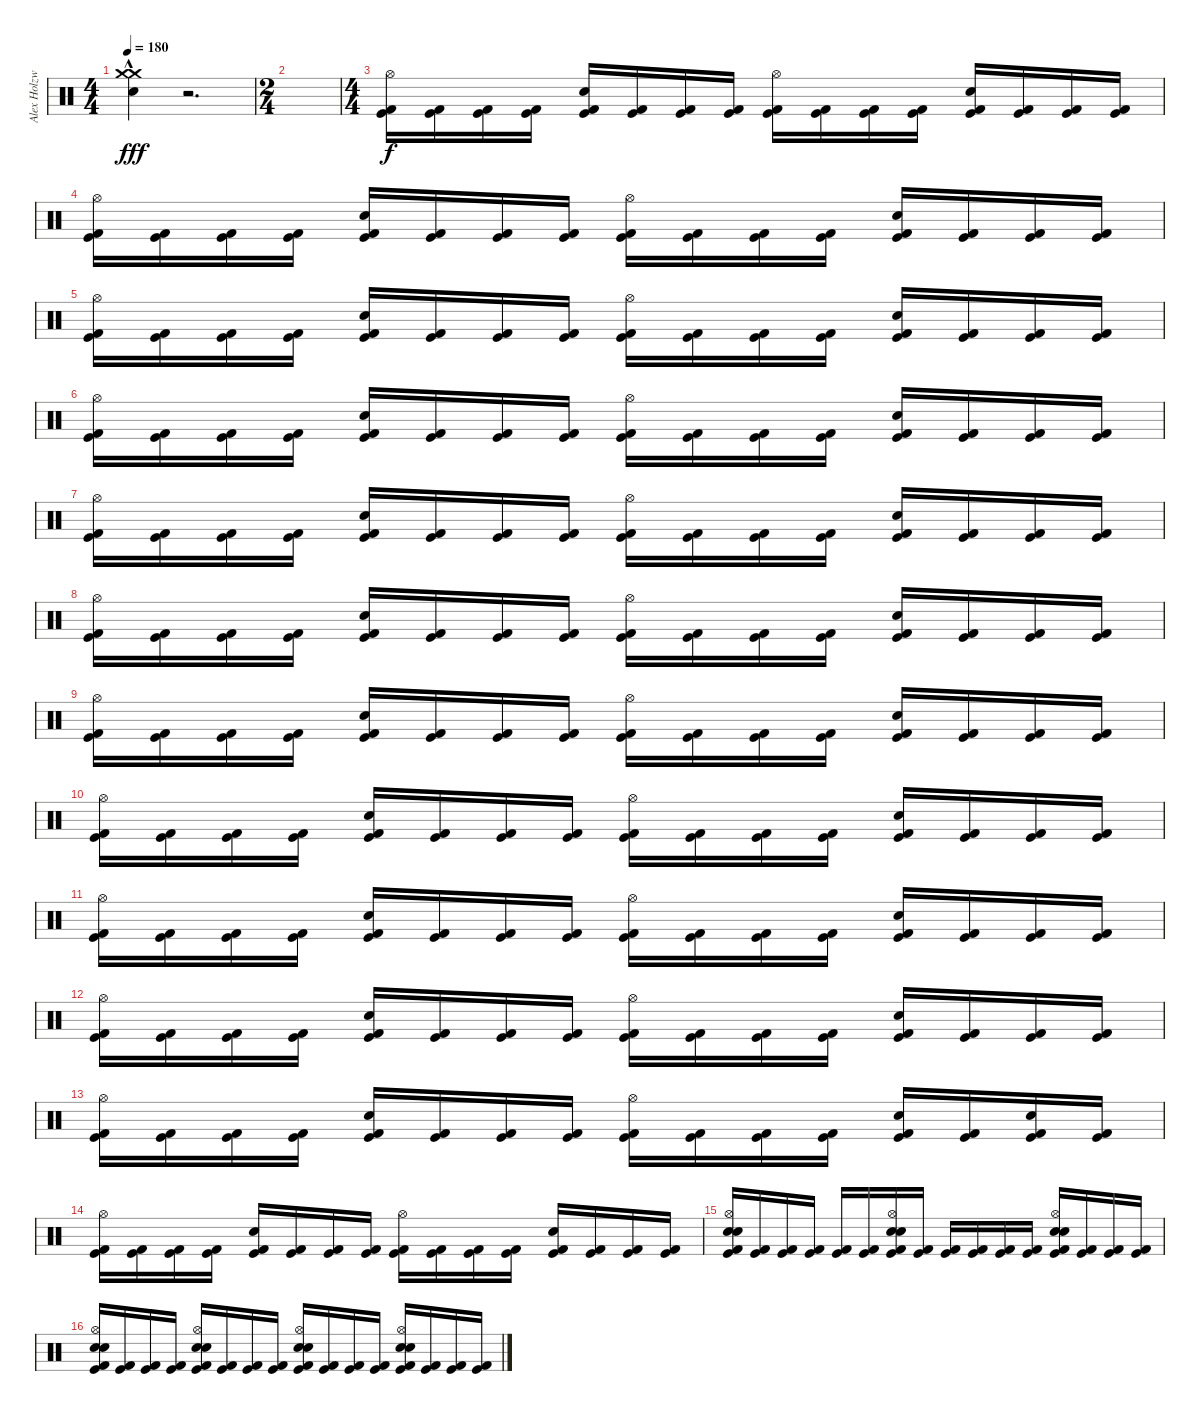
\track ("Alex Holzwarth" "Alex Holzw") {instrument percussion}
\staff {score}
\articulation defaults
\ts (4 4)
\tempo 180
\clef neutral
\ks c
("Crash medium (hit)"{hac} "Snare (hit) 2" "Crash medium (hit)"{hac}).4{dy fff volume 16} r.2{d volume 0} |
\ts (2 4)
|
\ts (4 4)
("Kick (hit) 2" "Kick (hit)" "Hi-Hat (open)").16{dy f} ("Kick (hit) 2" "Kick (hit)").16 ("Kick (hit) 2" "Kick (hit)").16 ("Kick (hit) 2" "Kick (hit)").16 ("Kick (hit) 2" "Kick (hit)" "Snare (hit) 2").16 ("Kick (hit) 2" "Kick (hit)").16 ("Kick (hit) 2" "Kick (hit)").16 ("Kick (hit) 2" "Kick (hit)").16 ("Kick (hit) 2" "Kick (hit)" "Hi-Hat (open)").16 ("Kick (hit) 2" "Kick (hit)").16 ("Kick (hit) 2" "Kick (hit)").16 ("Kick (hit) 2" "Kick (hit)").16 ("Kick (hit) 2" "Kick (hit)" "Snare (hit) 2").16 ("Kick (hit) 2" "Kick (hit)").16 ("Kick (hit) 2" "Kick (hit)").16 ("Kick (hit) 2" "Kick (hit)").16 |
("Kick (hit) 2" "Kick (hit)" "Hi-Hat (open)").16 ("Kick (hit) 2" "Kick (hit)").16 ("Kick (hit) 2" "Kick (hit)").16 ("Kick (hit) 2" "Kick (hit)").16 ("Kick (hit) 2" "Kick (hit)" "Snare (hit) 2").16 ("Kick (hit) 2" "Kick (hit)").16 ("Kick (hit) 2" "Kick (hit)").16 ("Kick (hit) 2" "Kick (hit)").16 ("Kick (hit) 2" "Kick (hit)" "Hi-Hat (open)").16 ("Kick (hit) 2" "Kick (hit)").16 ("Kick (hit) 2" "Kick (hit)").16 ("Kick (hit) 2" "Kick (hit)").16 ("Kick (hit) 2" "Kick (hit)" "Snare (hit) 2").16 ("Kick (hit) 2" "Kick (hit)").16 ("Kick (hit) 2" "Kick (hit)").16 ("Kick (hit) 2" "Kick (hit)").16 |
("Kick (hit) 2" "Kick (hit)" "Hi-Hat (open)").16 ("Kick (hit) 2" "Kick (hit)").16 ("Kick (hit) 2" "Kick (hit)").16 ("Kick (hit) 2" "Kick (hit)").16 ("Kick (hit) 2" "Kick (hit)" "Snare (hit) 2").16 ("Kick (hit) 2" "Kick (hit)").16 ("Kick (hit) 2" "Kick (hit)").16 ("Kick (hit) 2" "Kick (hit)").16 ("Kick (hit) 2" "Kick (hit)" "Hi-Hat (open)").16 ("Kick (hit) 2" "Kick (hit)").16 ("Kick (hit) 2" "Kick (hit)").16 ("Kick (hit) 2" "Kick (hit)").16 ("Kick (hit) 2" "Kick (hit)" "Snare (hit) 2").16 ("Kick (hit) 2" "Kick (hit)").16 ("Kick (hit) 2" "Kick (hit)").16 ("Kick (hit) 2" "Kick (hit)").16 |
("Kick (hit) 2" "Kick (hit)" "Hi-Hat (open)").16 ("Kick (hit) 2" "Kick (hit)").16 ("Kick (hit) 2" "Kick (hit)").16 ("Kick (hit) 2" "Kick (hit)").16 ("Kick (hit) 2" "Kick (hit)" "Snare (hit) 2").16 ("Kick (hit) 2" "Kick (hit)").16 ("Kick (hit) 2" "Kick (hit)").16 ("Kick (hit) 2" "Kick (hit)").16 ("Kick (hit) 2" "Kick (hit)" "Hi-Hat (open)").16 ("Kick (hit) 2" "Kick (hit)").16 ("Kick (hit) 2" "Kick (hit)").16 ("Kick (hit) 2" "Kick (hit)").16 ("Kick (hit) 2" "Kick (hit)" "Snare (hit) 2").16 ("Kick (hit) 2" "Kick (hit)").16 ("Kick (hit) 2" "Kick (hit)").16 ("Kick (hit) 2" "Kick (hit)").16 |
("Kick (hit) 2" "Kick (hit)" "Hi-Hat (open)").16 ("Kick (hit) 2" "Kick (hit)").16 ("Kick (hit) 2" "Kick (hit)").16 ("Kick (hit) 2" "Kick (hit)").16 ("Kick (hit) 2" "Kick (hit)" "Snare (hit) 2").16 ("Kick (hit) 2" "Kick (hit)").16 ("Kick (hit) 2" "Kick (hit)").16 ("Kick (hit) 2" "Kick (hit)").16 ("Kick (hit) 2" "Kick (hit)" "Hi-Hat (open)").16 ("Kick (hit) 2" "Kick (hit)").16 ("Kick (hit) 2" "Kick (hit)").16 ("Kick (hit) 2" "Kick (hit)").16 ("Kick (hit) 2" "Kick (hit)" "Snare (hit) 2").16 ("Kick (hit) 2" "Kick (hit)").16 ("Kick (hit) 2" "Kick (hit)").16 ("Kick (hit) 2" "Kick (hit)").16 |
("Kick (hit) 2" "Kick (hit)" "Hi-Hat (open)").16 ("Kick (hit) 2" "Kick (hit)").16 ("Kick (hit) 2" "Kick (hit)").16 ("Kick (hit) 2" "Kick (hit)").16 ("Kick (hit) 2" "Kick (hit)" "Snare (hit) 2").16 ("Kick (hit) 2" "Kick (hit)").16 ("Kick (hit) 2" "Kick (hit)").16 ("Kick (hit) 2" "Kick (hit)").16 ("Kick (hit) 2" "Kick (hit)" "Hi-Hat (open)").16 ("Kick (hit) 2" "Kick (hit)").16 ("Kick (hit) 2" "Kick (hit)").16 ("Kick (hit) 2" "Kick (hit)").16 ("Kick (hit) 2" "Kick (hit)" "Snare (hit) 2").16 ("Kick (hit) 2" "Kick (hit)").16 ("Kick (hit) 2" "Kick (hit)").16 ("Kick (hit) 2" "Kick (hit)").16 |
("Kick (hit) 2" "Kick (hit)" "Hi-Hat (open)").16 ("Kick (hit) 2" "Kick (hit)").16 ("Kick (hit) 2" "Kick (hit)").16 ("Kick (hit) 2" "Kick (hit)").16 ("Kick (hit) 2" "Kick (hit)" "Snare (hit) 2").16 ("Kick (hit) 2" "Kick (hit)").16 ("Kick (hit) 2" "Kick (hit)").16 ("Kick (hit) 2" "Kick (hit)").16 ("Kick (hit) 2" "Kick (hit)" "Hi-Hat (open)").16 ("Kick (hit) 2" "Kick (hit)").16 ("Kick (hit) 2" "Kick (hit)").16 ("Kick (hit) 2" "Kick (hit)").16 ("Kick (hit) 2" "Kick (hit)" "Snare (hit) 2").16 ("Kick (hit) 2" "Kick (hit)").16 ("Kick (hit) 2" "Kick (hit)").16 ("Kick (hit) 2" "Kick (hit)").16 |
("Kick (hit) 2" "Kick (hit)" "Hi-Hat (open)").16 ("Kick (hit) 2" "Kick (hit)").16 ("Kick (hit) 2" "Kick (hit)").16 ("Kick (hit) 2" "Kick (hit)").16 ("Kick (hit) 2" "Kick (hit)" "Snare (hit) 2").16 ("Kick (hit) 2" "Kick (hit)").16 ("Kick (hit) 2" "Kick (hit)").16 ("Kick (hit) 2" "Kick (hit)").16 ("Kick (hit) 2" "Kick (hit)" "Hi-Hat (open)").16 ("Kick (hit) 2" "Kick (hit)").16 ("Kick (hit) 2" "Kick (hit)").16 ("Kick (hit) 2" "Kick (hit)").16 ("Kick (hit) 2" "Kick (hit)" "Snare (hit) 2").16 ("Kick (hit) 2" "Kick (hit)").16 ("Kick (hit) 2" "Kick (hit)").16 ("Kick (hit) 2" "Kick (hit)").16 |
("Kick (hit) 2" "Kick (hit)" "Hi-Hat (open)").16 ("Kick (hit) 2" "Kick (hit)").16 ("Kick (hit) 2" "Kick (hit)").16 ("Kick (hit) 2" "Kick (hit)").16 ("Kick (hit) 2" "Kick (hit)" "Snare (hit) 2").16 ("Kick (hit) 2" "Kick (hit)").16 ("Kick (hit) 2" "Kick (hit)").16 ("Kick (hit) 2" "Kick (hit)").16 ("Kick (hit) 2" "Kick (hit)" "Hi-Hat (open)").16 ("Kick (hit) 2" "Kick (hit)").16 ("Kick (hit) 2" "Kick (hit)").16 ("Kick (hit) 2" "Kick (hit)").16 ("Kick (hit) 2" "Kick (hit)" "Snare (hit) 2").16 ("Kick (hit) 2" "Kick (hit)").16 ("Kick (hit) 2" "Kick (hit)").16 ("Kick (hit) 2" "Kick (hit)").16 |
("Kick (hit) 2" "Kick (hit)" "Hi-Hat (open)").16 ("Kick (hit) 2" "Kick (hit)").16 ("Kick (hit) 2" "Kick (hit)").16 ("Kick (hit) 2" "Kick (hit)").16 ("Kick (hit) 2" "Kick (hit)" "Snare (hit) 2").16 ("Kick (hit) 2" "Kick (hit)").16 ("Kick (hit) 2" "Kick (hit)").16 ("Kick (hit) 2" "Kick (hit)").16 ("Kick (hit) 2" "Kick (hit)" "Hi-Hat (open)").16 ("Kick (hit) 2" "Kick (hit)").16 ("Kick (hit) 2" "Kick (hit)").16 ("Kick (hit) 2" "Kick (hit)").16 ("Kick (hit) 2" "Kick (hit)" "Snare (hit) 2").16 ("Kick (hit) 2" "Kick (hit)").16 ("Kick (hit) 2" "Kick (hit)").16 ("Kick (hit) 2" "Kick (hit)").16 |
("Kick (hit) 2" "Kick (hit)" "Hi-Hat (open)").16 ("Kick (hit) 2" "Kick (hit)").16 ("Kick (hit) 2" "Kick (hit)").16 ("Kick (hit) 2" "Kick (hit)").16 ("Kick (hit) 2" "Kick (hit)" "Snare (hit) 2").16 ("Kick (hit) 2" "Kick (hit)").16 ("Kick (hit) 2" "Kick (hit)").16 ("Kick (hit) 2" "Kick (hit)").16 ("Kick (hit) 2" "Kick (hit)" "Hi-Hat (open)").16 ("Kick (hit) 2" "Kick (hit)").16 ("Kick (hit) 2" "Kick (hit)").16 ("Kick (hit) 2" "Kick (hit)").16 ("Kick (hit) 2" "Kick (hit)" "Snare (hit) 2").16 ("Kick (hit) 2" "Kick (hit)").16 ("Kick (hit) 2" "Kick (hit)" "Snare (hit) 2").16 ("Kick (hit) 2" "Kick (hit)").16 |
("Kick (hit) 2" "Kick (hit)" "Hi-Hat (open)").16 ("Kick (hit) 2" "Kick (hit)").16 ("Kick (hit) 2" "Kick (hit)").16 ("Kick (hit) 2" "Kick (hit)").16 ("Kick (hit) 2" "Kick (hit)" "Snare (hit) 2").16 ("Kick (hit) 2" "Kick (hit)").16 ("Kick (hit) 2" "Kick (hit)").16 ("Kick (hit) 2" "Kick (hit)").16 ("Kick (hit) 2" "Kick (hit)" "Hi-Hat (open)").16 ("Kick (hit) 2" "Kick (hit)").16 ("Kick (hit) 2" "Kick (hit)").16 ("Kick (hit) 2" "Kick (hit)").16 ("Kick (hit) 2" "Kick (hit)" "Snare (hit) 2").16 ("Kick (hit) 2" "Kick (hit)").16 ("Kick (hit) 2" "Kick (hit)").16 ("Kick (hit) 2" "Kick (hit)").16 |
("Kick (hit) 2" "Kick (hit)" "Snare (hit) 2" "Electric Snare (hit)" "Hi-Hat (open)").16 ("Kick (hit) 2" "Kick (hit)").16 ("Kick (hit) 2" "Kick (hit)").16 ("Kick (hit) 2" "Kick (hit)").16 ("Kick (hit) 2" "Kick (hit)").16 ("Kick (hit) 2" "Kick (hit)").16 ("Kick (hit) 2" "Kick (hit)" "Snare (hit) 2" "Electric Snare (hit)" "Hi-Hat (open)").16 ("Kick (hit) 2" "Kick (hit)").16 ("Kick (hit) 2" "Kick (hit)").16 ("Kick (hit) 2" "Kick (hit)").16 ("Kick (hit) 2" "Kick (hit)").16 ("Kick (hit) 2" "Kick (hit)").16 ("Kick (hit) 2" "Kick (hit)" "Snare (hit) 2" "Electric Snare (hit)" "Hi-Hat (open)").16 ("Kick (hit) 2" "Kick (hit)").16 ("Kick (hit) 2" "Kick (hit)").16 ("Kick (hit) 2" "Kick (hit)").16 |
("Kick (hit) 2" "Kick (hit)" "Snare (hit) 2" "Electric Snare (hit)" "Hi-Hat (open)").16 ("Kick (hit) 2" "Kick (hit)").16 ("Kick (hit) 2" "Kick (hit)").16 ("Kick (hit) 2" "Kick (hit)").16 ("Kick (hit) 2" "Kick (hit)" "Snare (hit) 2" "Electric Snare (hit)" "Hi-Hat (open)").16 ("Kick (hit) 2" "Kick (hit)").16 ("Kick (hit) 2" "Kick (hit)").16 ("Kick (hit) 2" "Kick (hit)").16 ("Kick (hit) 2" "Kick (hit)" "Hi-Hat (open)" "Snare (hit) 2" "Electric Snare (hit)").16 ("Kick (hit) 2" "Kick (hit)").16 ("Kick (hit) 2" "Kick (hit)").16 ("Kick (hit) 2" "Kick (hit)").16 ("Kick (hit) 2" "Kick (hit)" "Snare (hit) 2" "Electric Snare (hit)" "Hi-Hat (open)").16 ("Kick (hit) 2" "Kick (hit)").16 ("Kick (hit) 2" "Kick (hit)").16 ("Kick (hit) 2" "Kick (hit)").16
